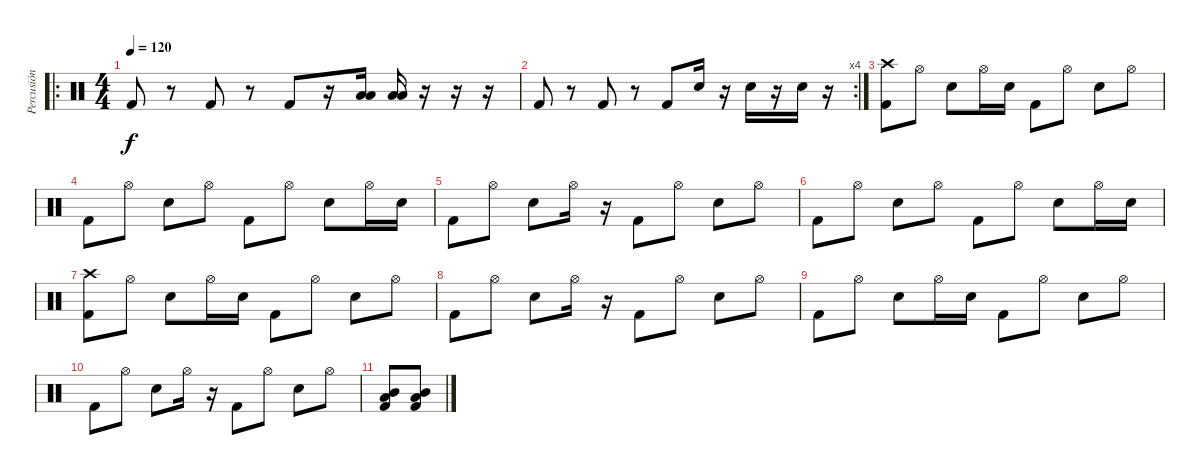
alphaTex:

\track ("Percusión" "Percusión") {instrument percussion}
\staff {score}
\articulation defaults
\ro
\ts (4 4)
\tempo 120
\clef neutral
\ks c "Kick (hit) 2".8{dy f}
r.8 "Kick (hit) 2".8 r.8 "Kick (hit) 2".8 r.16 ("Low Tom (hit)" "Low Floor Tom (hit)").16 ("Low Tom (hit)" "Low Floor Tom (hit)").16 r.16 r.16 r.16 |
\rc 4 "Kick (hit) 2".8
r.8 "Kick (hit) 2".8 r.8 "Kick (hit) 2".8 "Snare (hit) 2".16 r.16 "Snare (hit) 2".16 r.16 "Snare (hit) 2".16 r.16 |
("Crash high (hit)" "Kick (hit) 2").8 "Hi-Hat (open)".8 "Snare (hit) 2".8 "Hi-Hat (open)".16 "Snare (hit) 2".16 "Kick (hit) 2".8 "Hi-Hat (open)".8 "Snare (hit) 2".8 "Hi-Hat (open)".8 |
"Kick (hit) 2".8 "Hi-Hat (open)".8 "Snare (hit) 2".8 "Hi-Hat (open)".8 "Kick (hit) 2".8 "Hi-Hat (open)".8 "Snare (hit) 2".8 "Hi-Hat (open)".16 "Snare (hit) 2".16 |
"Kick (hit) 2".8 "Hi-Hat (open)".8 "Snare (hit) 2".8 "Hi-Hat (open)".16 r.16 "Kick (hit) 2".8 "Hi-Hat (open)".8 "Snare (hit) 2".8 "Hi-Hat (open)".8 |
"Kick (hit) 2".8 "Hi-Hat (open)".8 "Snare (hit) 2".8 "Hi-Hat (open)".8 "Kick (hit) 2".8 "Hi-Hat (open)".8 "Snare (hit) 2".8 "Hi-Hat (open)".16 "Snare (hit) 2".16 |
("Crash high (hit)" "Kick (hit) 2").8 "Hi-Hat (open)".8 "Snare (hit) 2".8 "Hi-Hat (open)".16 "Snare (hit) 2".16 "Kick (hit) 2".8 "Hi-Hat (open)".8 "Snare (hit) 2".8 "Hi-Hat (open)".8 |
"Kick (hit) 2".8 "Hi-Hat (open)".8 "Snare (hit) 2".8 "Hi-Hat (open)".16 r.16 "Kick (hit) 2".8 "Hi-Hat (open)".8 "Snare (hit) 2".8 "Hi-Hat (open)".8 |
"Kick (hit) 2".8 "Hi-Hat (open)".8 "Snare (hit) 2".8 "Hi-Hat (open)".16 "Snare (hit) 2".16 "Kick (hit) 2".8 "Hi-Hat (open)".8 "Snare (hit) 2".8 "Hi-Hat (open)".8 |
"Kick (hit) 2".8 "Hi-Hat (open)".8 "Snare (hit) 2".8 "Hi-Hat (open)".16 r.16 "Kick (hit) 2".8 "Hi-Hat (open)".8 "Snare (hit) 2".8 "Hi-Hat (open)".8 |
("Mid Tom (hit)" "Low Floor Tom (hit)" "Kick (hit) 2").8 ("Mid Tom (hit)" "Low Floor Tom (hit)" "Kick (hit) 2").8
